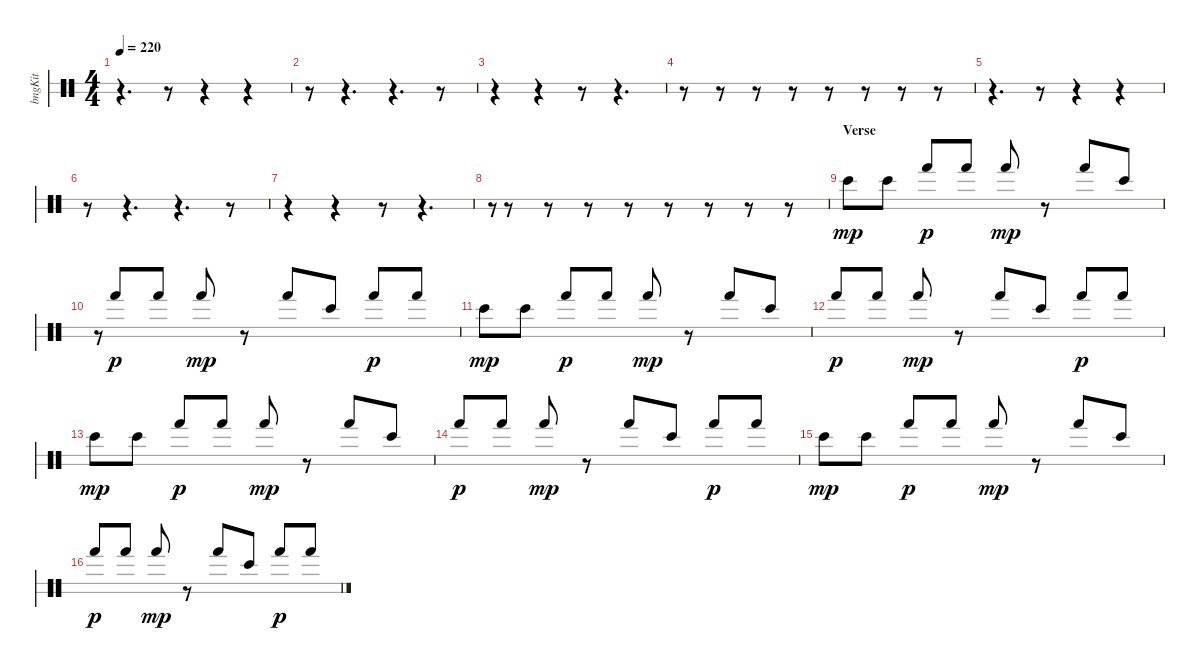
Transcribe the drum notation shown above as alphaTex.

\bracketExtendMode groupsimilarinstruments
\otherSystemsTrackNameOrientation horizontal
\track ("Bongos" "bngKit") {instrument percussion}
\staff {score 2}
\articulation defaults
\ts (4 4)
\tempo 220
\clef neutral
\ks c
r.4{d dy mp beam Down} r.8{beam Down} r.4{beam Down} r.4{beam Down} |
r.8{beam Down} r.4{d beam Down} r.4{d beam Down} r.8{beam Down} |
r.4{beam Down} r.4{beam Down} r.8{beam Down} r.4{d beam Down} |
r.8{beam Down} r.8{beam Down} r.8{beam Down} r.8{beam Down} r.8{beam Down} r.8{beam Down} r.8{beam Down} r.8{beam Down} |
r.4{d beam Down} r.8{beam Down} r.4{beam Down} r.4{beam Down} |
r.8{beam Down} r.4{d beam Down} r.4{d beam Down} r.8{beam Down} |
r.4{beam Down} r.4{beam Down} r.8{beam Down} r.4{d beam Down} |
r.8{gr beam Up} r.8{beam Down} r.8{beam Down} r.8{beam Down} r.8{beam Down} r.8{beam Down} r.8{beam Down} r.8{beam Down} r.8{beam Down} |
\section ("" "Verse")
"Bongo High (hit)".8{beam Down} "Bongo High (hit)".8{beam Down} "Hand (hit)".8{dy p beam Up} "Hand (hit)".8{beam Up} "Hand (hit)".8{dy mp beam Up} r.8{beam Up} "Hand (hit)".8{beam Up} "Bongo High (hit)".8{beam Up} |
r.8{gr beam Up} "Hand (hit)".8{dy p beam Up} "Hand (hit)".8{beam Up} "Hand (hit)".8{dy mp beam Up} r.8{beam Up} "Hand (hit)".8{beam Up} "Bongo High (hit)".8{beam Up} "Hand (hit)".8{dy p beam Up} "Hand (hit)".8{beam Up} |
"Bongo High (hit)".8{dy mp beam Down} "Bongo High (hit)".8{beam Down} "Hand (hit)".8{dy p beam Up} "Hand (hit)".8{beam Up} "Hand (hit)".8{dy mp beam Up} r.8{beam Up} "Hand (hit)".8{beam Up} "Bongo High (hit)".8{beam Up} |
"Hand (hit)".8{dy p beam Up} "Hand (hit)".8{beam Up} "Hand (hit)".8{dy mp beam Up} r.8{beam Up} "Hand (hit)".8{beam Up} "Bongo High (hit)".8{beam Up} "Hand (hit)".8{dy p beam Up} "Hand (hit)".8{beam Up} |
"Bongo High (hit)".8{dy mp beam Down} "Bongo High (hit)".8{beam Down} "Hand (hit)".8{dy p beam Up} "Hand (hit)".8{beam Up} "Hand (hit)".8{dy mp beam Up} r.8{beam Up} "Hand (hit)".8{beam Up} "Bongo High (hit)".8{beam Up} |
"Hand (hit)".8{dy p beam Up} "Hand (hit)".8{beam Up} "Hand (hit)".8{dy mp beam Up} r.8{beam Up} "Hand (hit)".8{beam Up} "Bongo High (hit)".8{beam Up} "Hand (hit)".8{dy p beam Up} "Hand (hit)".8{beam Up} |
"Bongo High (hit)".8{dy mp beam Down} "Bongo High (hit)".8{beam Down} "Hand (hit)".8{dy p beam Up} "Hand (hit)".8{beam Up} "Hand (hit)".8{dy mp beam Up} r.8{beam Up} "Hand (hit)".8{beam Up} "Bongo High (hit)".8{beam Up} |
"Hand (hit)".8{dy p beam Up} "Hand (hit)".8{beam Up} "Hand (hit)".8{dy mp beam Up} r.8{beam Up} "Hand (hit)".8{beam Up} "Bongo High (hit)".8{beam Up} "Hand (hit)".8{dy p beam Up} "Hand (hit)".8{beam Up}
